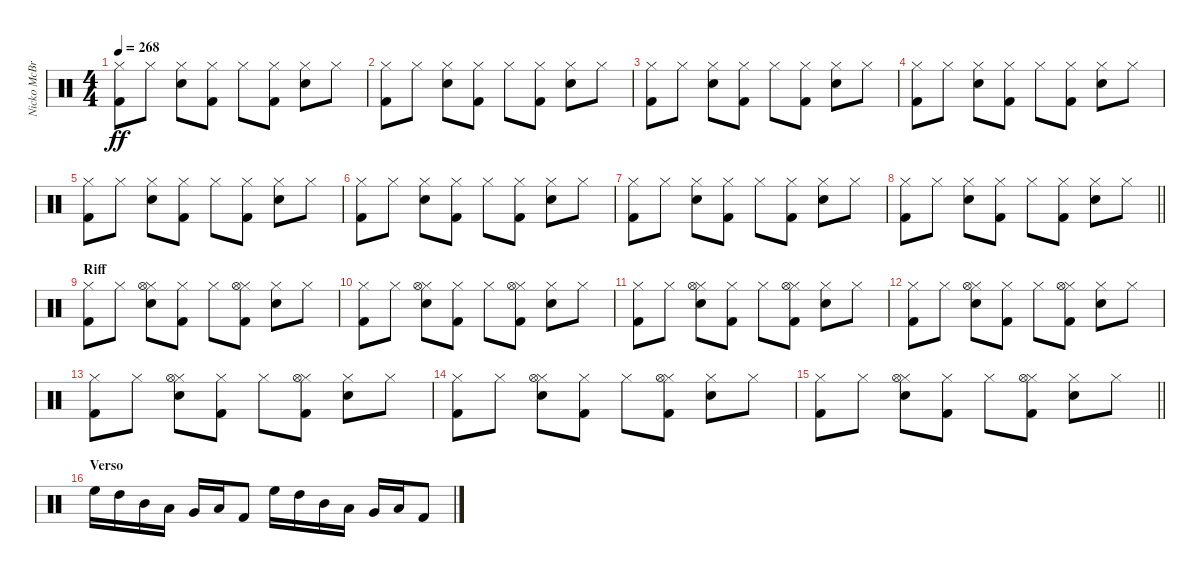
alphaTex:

\track ("Nicko McBrain" "Nicko McBr") {instrument percussion}
\staff {score}
\articulation defaults
\ts (4 4)
\tempo 268
\clef neutral
\ks c
("Kick (hit) 2" "Hi-Hat (closed)").8{dy ff} "Hi-Hat (closed)".8 ("Snare (hit) 2" "Hi-Hat (closed)").8 ("Kick (hit) 2" "Hi-Hat (closed)").8 "Hi-Hat (closed)".8 ("Kick (hit) 2" "Hi-Hat (closed)").8 ("Snare (hit) 2" "Hi-Hat (closed)").8 "Hi-Hat (closed)".8 |
("Kick (hit) 2" "Hi-Hat (closed)").8 "Hi-Hat (closed)".8 ("Snare (hit) 2" "Hi-Hat (closed)").8 ("Kick (hit) 2" "Hi-Hat (closed)").8 "Hi-Hat (closed)".8 ("Kick (hit) 2" "Hi-Hat (closed)").8 ("Snare (hit) 2" "Hi-Hat (closed)").8 "Hi-Hat (closed)".8 |
("Kick (hit) 2" "Hi-Hat (closed)").8 "Hi-Hat (closed)".8 ("Snare (hit) 2" "Hi-Hat (closed)").8 ("Kick (hit) 2" "Hi-Hat (closed)").8 "Hi-Hat (closed)".8 ("Kick (hit) 2" "Hi-Hat (closed)").8 ("Snare (hit) 2" "Hi-Hat (closed)").8 "Hi-Hat (closed)".8 |
("Kick (hit) 2" "Hi-Hat (closed)").8 "Hi-Hat (closed)".8 ("Snare (hit) 2" "Hi-Hat (closed)").8 ("Kick (hit) 2" "Hi-Hat (closed)").8 "Hi-Hat (closed)".8 ("Kick (hit) 2" "Hi-Hat (closed)").8 ("Snare (hit) 2" "Hi-Hat (closed)").8 "Hi-Hat (closed)".8 |
("Kick (hit) 2" "Hi-Hat (closed)").8 "Hi-Hat (closed)".8 ("Snare (hit) 2" "Hi-Hat (closed)").8 ("Kick (hit) 2" "Hi-Hat (closed)").8 "Hi-Hat (closed)".8 ("Kick (hit) 2" "Hi-Hat (closed)").8 ("Snare (hit) 2" "Hi-Hat (closed)").8 "Hi-Hat (closed)".8 |
("Kick (hit) 2" "Hi-Hat (closed)").8 "Hi-Hat (closed)".8 ("Snare (hit) 2" "Hi-Hat (closed)").8 ("Kick (hit) 2" "Hi-Hat (closed)").8 "Hi-Hat (closed)".8 ("Kick (hit) 2" "Hi-Hat (closed)").8 ("Snare (hit) 2" "Hi-Hat (closed)").8 "Hi-Hat (closed)".8 |
("Kick (hit) 2" "Hi-Hat (closed)").8 "Hi-Hat (closed)".8 ("Snare (hit) 2" "Hi-Hat (closed)").8 ("Kick (hit) 2" "Hi-Hat (closed)").8 "Hi-Hat (closed)".8 ("Kick (hit) 2" "Hi-Hat (closed)").8 ("Snare (hit) 2" "Hi-Hat (closed)").8 "Hi-Hat (closed)".8 |
\barLineRight lightlight
("Kick (hit) 2" "Hi-Hat (closed)").8 "Hi-Hat (closed)".8 ("Snare (hit) 2" "Hi-Hat (closed)").8 ("Kick (hit) 2" "Hi-Hat (closed)").8 "Hi-Hat (closed)".8 ("Kick (hit) 2" "Hi-Hat (closed)").8 ("Snare (hit) 2" "Hi-Hat (closed)").8 "Hi-Hat (closed)".8 |
\section ("" "Riff")
("Kick (hit) 2" "Hi-Hat (closed)").8 "Hi-Hat (closed)".8 ("Snare (hit) 2" "Hi-Hat (closed)" "Hi-Hat (open)").8 ("Kick (hit) 2" "Hi-Hat (closed)").8 "Hi-Hat (closed)".8 ("Kick (hit) 2" "Hi-Hat (closed)" "Hi-Hat (open)").8 ("Snare (hit) 2" "Hi-Hat (closed)").8 "Hi-Hat (closed)".8 |
("Kick (hit) 2" "Hi-Hat (closed)").8 "Hi-Hat (closed)".8 ("Snare (hit) 2" "Hi-Hat (closed)" "Hi-Hat (open)").8 ("Kick (hit) 2" "Hi-Hat (closed)").8 "Hi-Hat (closed)".8 ("Kick (hit) 2" "Hi-Hat (closed)" "Hi-Hat (open)").8 ("Snare (hit) 2" "Hi-Hat (closed)").8 "Hi-Hat (closed)".8 |
("Kick (hit) 2" "Hi-Hat (closed)").8 "Hi-Hat (closed)".8 ("Snare (hit) 2" "Hi-Hat (closed)" "Hi-Hat (open)").8 ("Kick (hit) 2" "Hi-Hat (closed)").8 "Hi-Hat (closed)".8 ("Kick (hit) 2" "Hi-Hat (closed)" "Hi-Hat (open)").8 ("Snare (hit) 2" "Hi-Hat (closed)").8 "Hi-Hat (closed)".8 |
("Kick (hit) 2" "Hi-Hat (closed)").8 "Hi-Hat (closed)".8 ("Snare (hit) 2" "Hi-Hat (closed)" "Hi-Hat (open)").8 ("Kick (hit) 2" "Hi-Hat (closed)").8 "Hi-Hat (closed)".8 ("Kick (hit) 2" "Hi-Hat (closed)" "Hi-Hat (open)").8 ("Snare (hit) 2" "Hi-Hat (closed)").8 "Hi-Hat (closed)".8 |
("Kick (hit) 2" "Hi-Hat (closed)").8 "Hi-Hat (closed)".8 ("Snare (hit) 2" "Hi-Hat (closed)" "Hi-Hat (open)").8 ("Kick (hit) 2" "Hi-Hat (closed)").8 "Hi-Hat (closed)".8 ("Kick (hit) 2" "Hi-Hat (closed)" "Hi-Hat (open)").8 ("Snare (hit) 2" "Hi-Hat (closed)").8 "Hi-Hat (closed)".8 |
("Kick (hit) 2" "Hi-Hat (closed)").8 "Hi-Hat (closed)".8 ("Snare (hit) 2" "Hi-Hat (closed)" "Hi-Hat (open)").8 ("Kick (hit) 2" "Hi-Hat (closed)").8 "Hi-Hat (closed)".8 ("Kick (hit) 2" "Hi-Hat (closed)" "Hi-Hat (open)").8 ("Snare (hit) 2" "Hi-Hat (closed)").8 "Hi-Hat (closed)".8 |
\barLineRight lightlight
("Kick (hit) 2" "Hi-Hat (closed)").8 "Hi-Hat (closed)".8 ("Snare (hit) 2" "Hi-Hat (closed)" "Hi-Hat (open)").8 ("Kick (hit) 2" "Hi-Hat (closed)").8 "Hi-Hat (closed)".8 ("Kick (hit) 2" "Hi-Hat (closed)" "Hi-Hat (open)").8 ("Snare (hit) 2" "Hi-Hat (closed)").8 "Hi-Hat (closed)".8 |
\section ("" "Verso")
"High Floor Tom (hit)".16 "High Tom (hit)".16 "Mid Tom (hit)".16 "Low Tom (hit)".16 "Very Low Tom (hit)".16 "Low Floor Tom (hit)".16 "Kick (hit) 2".8 "High Floor Tom (hit)".16 "High Tom (hit)".16 "Mid Tom (hit)".16 "Low Tom (hit)".16 "Very Low Tom (hit)".16 "Low Floor Tom (hit)".16 "Kick (hit) 2".8
